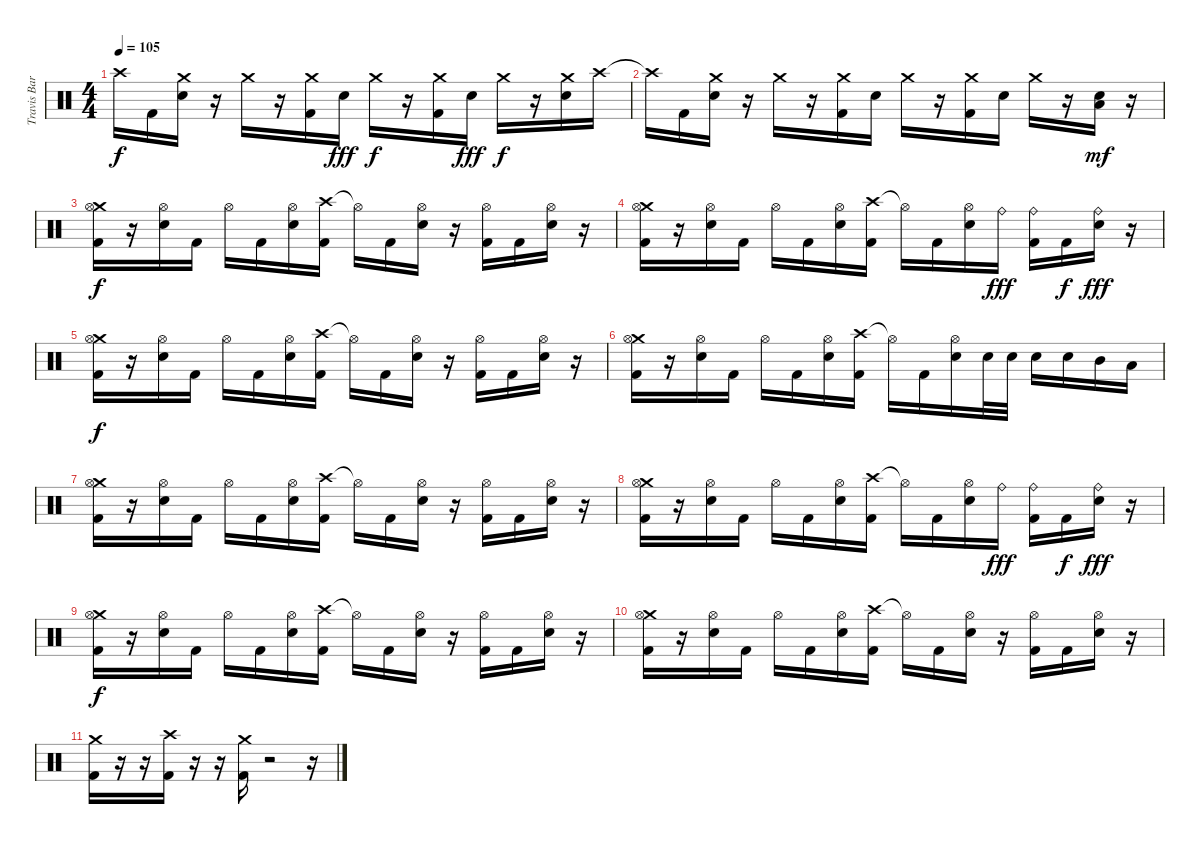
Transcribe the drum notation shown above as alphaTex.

\track ("Travis Barker(Drums)" "Travis Bar") {instrument percussion}
\staff {score}
\articulation defaults
\ts (4 4)
\tempo 105
\clef neutral
\ks c "Crash high (hit)"{t}.16{dy f} "Kick (hit) 2".16
("Crash medium (hit)" "Electric Snare (hit)").16 r.16 "Crash medium (hit)".16 r.16 ("Crash medium (hit)" "Kick (hit) 2").16 "Electric Snare (hit)".16{dy fff} "Crash medium (hit)".16{dy f} r.16 ("Crash medium (hit)" "Kick (hit) 2").16 "Electric Snare (hit)".16{dy fff} "Crash medium (hit)".16{dy f} r.16 ("Crash medium (hit)" "Electric Snare (hit)").16 "Crash high (hit)".16 |
"Crash high (hit)"{t}.16 "Kick (hit) 2".16 ("Crash medium (hit)" "Electric Snare (hit)").16 r.16 "Crash medium (hit)".16 r.16 ("Crash medium (hit)" "Kick (hit) 2").16 "Electric Snare (hit)".16 "Crash medium (hit)".16 r.16 ("Crash medium (hit)" "Kick (hit) 2").16 "Electric Snare (hit)".16 "Crash medium (hit)".16 r.16 ("Low Tom (hit)" "Electric Snare (hit)").16{dy mf} r.16 |
("Crash medium (hit)" "Hi-Hat (open)" "Kick (hit) 2").16{dy f} r.16 ("Hi-Hat (open)" "Electric Snare (hit)").16 "Kick (hit) 2".16 "Hi-Hat (open)".16 "Kick (hit) 2".16 ("Hi-Hat (open)" "Electric Snare (hit)").16 ("Crash high (hit)" "Kick (hit) 2").16 "Hi-Hat (open)"{t}.16 "Kick (hit) 2".16 ("Hi-Hat (open)" "Electric Snare (hit)").16 r.16 ("Hi-Hat (open)" "Kick (hit) 2").16 "Kick (hit) 2".16 ("Hi-Hat (open)" "Electric Snare (hit)").16 r.16 |
("Crash medium (hit)" "Hi-Hat (open)" "Kick (hit) 2").16 r.16 ("Hi-Hat (open)" "Electric Snare (hit)").16 "Kick (hit) 2".16 "Hi-Hat (open)".16 "Kick (hit) 2".16 ("Hi-Hat (open)" "Electric Snare (hit)").16 ("Crash high (hit)" "Kick (hit) 2").16 "Hi-Hat (open)"{t}.16 "Kick (hit) 2".16 ("Hi-Hat (open)" "Electric Snare (hit)").16 "Ride (bell)".16{dy fff} ("Ride (bell)" "Kick (hit) 2").16 "Kick (hit) 2".16{dy f} ("Ride (bell)" "Electric Snare (hit)").16{dy fff} r.16 |
("Crash medium (hit)" "Hi-Hat (open)" "Kick (hit) 2").16{dy f} r.16 ("Hi-Hat (open)" "Electric Snare (hit)").16 "Kick (hit) 2".16 "Hi-Hat (open)".16 "Kick (hit) 2".16 ("Hi-Hat (open)" "Electric Snare (hit)").16 ("Crash high (hit)" "Kick (hit) 2").16 "Hi-Hat (open)"{t}.16 "Kick (hit) 2".16 ("Hi-Hat (open)" "Electric Snare (hit)").16 r.16 ("Hi-Hat (open)" "Kick (hit) 2").16 "Kick (hit) 2".16 ("Hi-Hat (open)" "Electric Snare (hit)").16 r.16 |
("Crash medium (hit)" "Hi-Hat (open)" "Kick (hit) 2").16 r.16 ("Hi-Hat (open)" "Electric Snare (hit)").16 "Kick (hit) 2".16 "Hi-Hat (open)".16 "Kick (hit) 2".16 ("Hi-Hat (open)" "Electric Snare (hit)").16 ("Crash high (hit)" "Kick (hit) 2").16 "Hi-Hat (open)"{t}.16 "Kick (hit) 2".16 ("Hi-Hat (open)" "Electric Snare (hit)").16 "Electric Snare (hit)".32 "Electric Snare (hit)".32 "Electric Snare (hit)".16 "Electric Snare (hit)".16 "Mid Tom (hit)".16 "Low Tom (hit)".16 |
("Crash medium (hit)" "Hi-Hat (open)" "Kick (hit) 2").16 r.16 ("Hi-Hat (open)" "Electric Snare (hit)").16 "Kick (hit) 2".16 "Hi-Hat (open)".16 "Kick (hit) 2".16 ("Hi-Hat (open)" "Electric Snare (hit)").16 ("Crash high (hit)" "Kick (hit) 2").16 "Hi-Hat (open)"{t}.16 "Kick (hit) 2".16 ("Hi-Hat (open)" "Electric Snare (hit)").16 r.16 ("Hi-Hat (open)" "Kick (hit) 2").16 "Kick (hit) 2".16 ("Hi-Hat (open)" "Electric Snare (hit)").16 r.16 |
("Crash medium (hit)" "Hi-Hat (open)" "Kick (hit) 2").16 r.16 ("Hi-Hat (open)" "Electric Snare (hit)").16 "Kick (hit) 2".16 "Hi-Hat (open)".16 "Kick (hit) 2".16 ("Hi-Hat (open)" "Electric Snare (hit)").16 ("Crash high (hit)" "Kick (hit) 2").16 "Hi-Hat (open)"{t}.16 "Kick (hit) 2".16 ("Hi-Hat (open)" "Electric Snare (hit)").16 "Ride (bell)".16{dy fff} ("Ride (bell)" "Kick (hit) 2").16 "Kick (hit) 2".16{dy f} ("Ride (bell)" "Electric Snare (hit)").16{dy fff} r.16 |
("Crash medium (hit)" "Hi-Hat (open)" "Kick (hit) 2").16{dy f} r.16 ("Hi-Hat (open)" "Electric Snare (hit)").16 "Kick (hit) 2".16 "Hi-Hat (open)".16 "Kick (hit) 2".16 ("Hi-Hat (open)" "Electric Snare (hit)").16 ("Crash high (hit)" "Kick (hit) 2").16 "Hi-Hat (open)"{t}.16 "Kick (hit) 2".16 ("Hi-Hat (open)" "Electric Snare (hit)").16 r.16 ("Hi-Hat (open)" "Kick (hit) 2").16 "Kick (hit) 2".16 ("Hi-Hat (open)" "Electric Snare (hit)").16 r.16 |
("Crash medium (hit)" "Hi-Hat (open)" "Kick (hit) 2").16 r.16 ("Hi-Hat (open)" "Electric Snare (hit)").16 "Kick (hit) 2".16 "Hi-Hat (open)".16 "Kick (hit) 2".16 ("Hi-Hat (open)" "Electric Snare (hit)").16 ("Crash high (hit)" "Kick (hit) 2").16 "Hi-Hat (open)"{t}.16 "Kick (hit) 2".16 ("Hi-Hat (open)" "Electric Snare (hit)").16 r.16 ("Hi-Hat (open)" "Kick (hit) 2").16 "Kick (hit) 2".16 ("Hi-Hat (open)" "Electric Snare (hit)").16 r.16 |
("Crash medium (hit)" "Kick (hit) 2").16 r.16 r.16 ("Crash high (hit)" "Kick (hit) 2").16 r.16 r.16 ("Crash medium (hit)" "Kick (hit) 2").16 r.2 r.16
